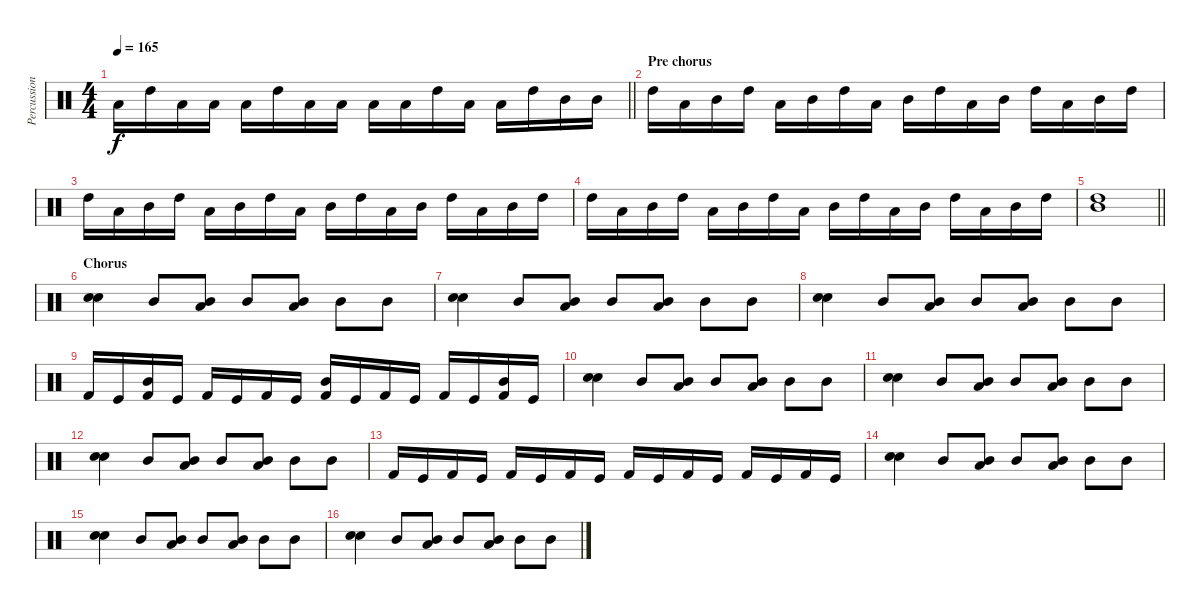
\track ("Percussion" "Percussion") {instrument percussion}
\staff {score}
\articulation defaults
\ts (4 4)
\tempo 165
\clef neutral
\barLineRight lightlight
\ks c "Low Tom (hit)".16{dy f} "High Tom (hit)".16 "Low Tom (hit)".16 "Low Tom (hit)".16 "Low Tom (hit)".16 "High Tom (hit)".16 "Low Tom (hit)".16 "Low Tom (hit)".16 "Low Tom (hit)".16 "Low Tom (hit)".16 "High Tom (hit)".16 "Low Tom (hit)".16 "Low Tom (hit)".16 "High Tom (hit)".16 "Mid Tom (hit)".16 "Mid Tom (hit)".16
|
\section ("" "Pre chorus")
"High Tom (hit)".16 "Low Tom (hit)".16 "Mid Tom (hit)".16 "High Tom (hit)".16 "Low Tom (hit)".16 "Mid Tom (hit)".16 "High Tom (hit)".16 "Low Tom (hit)".16 "Mid Tom (hit)".16 "High Tom (hit)".16 "Low Tom (hit)".16 "Mid Tom (hit)".16 "High Tom (hit)".16 "Low Tom (hit)".16 "Mid Tom (hit)".16 "High Tom (hit)".16 |
"High Tom (hit)".16 "Low Tom (hit)".16 "Mid Tom (hit)".16 "High Tom (hit)".16 "Low Tom (hit)".16 "Mid Tom (hit)".16 "High Tom (hit)".16 "Low Tom (hit)".16 "Mid Tom (hit)".16 "High Tom (hit)".16 "Low Tom (hit)".16 "Mid Tom (hit)".16 "High Tom (hit)".16 "Low Tom (hit)".16 "Mid Tom (hit)".16 "High Tom (hit)".16 |
"High Tom (hit)".16 "Low Tom (hit)".16 "Mid Tom (hit)".16 "High Tom (hit)".16 "Low Tom (hit)".16 "Mid Tom (hit)".16 "High Tom (hit)".16 "Low Tom (hit)".16 "Mid Tom (hit)".16 "High Tom (hit)".16 "Low Tom (hit)".16 "Mid Tom (hit)".16 "High Tom (hit)".16 "Low Tom (hit)".16 "Mid Tom (hit)".16 "High Tom (hit)".16 |
\barLineRight lightlight
("Mid Tom (hit)" "High Tom (hit)").1 |
\section ("" "Chorus")
("Electric Snare (hit)" "Snare (hit) 2").4 "Mid Tom (hit)".8 ("Low Tom (hit)" "Mid Tom (hit)").8 "Mid Tom (hit)".8 ("Low Tom (hit)" "Mid Tom (hit)").8 "Mid Tom (hit)".8 "Mid Tom (hit)".8 |
("Electric Snare (hit)" "Snare (hit) 2").4 "Mid Tom (hit)".8 ("Low Tom (hit)" "Mid Tom (hit)").8 "Mid Tom (hit)".8 ("Low Tom (hit)" "Mid Tom (hit)").8 "Mid Tom (hit)".8 "Mid Tom (hit)".8 |
("Electric Snare (hit)" "Snare (hit) 2").4 "Mid Tom (hit)".8 ("Low Tom (hit)" "Mid Tom (hit)").8 "Mid Tom (hit)".8 ("Low Tom (hit)" "Mid Tom (hit)").8 "Mid Tom (hit)".8 "Mid Tom (hit)".8 |
"Kick (hit) 2".16 "Kick (hit)".16 ("Kick (hit) 2" "Mid Tom (hit)").16 "Kick (hit)".16 "Kick (hit) 2".16 "Kick (hit)".16 "Kick (hit) 2".16 "Kick (hit)".16 ("Kick (hit) 2" "Mid Tom (hit)").16 "Kick (hit)".16 "Kick (hit) 2".16 "Kick (hit)".16 "Kick (hit) 2".16 "Kick (hit)".16 ("Kick (hit) 2" "Mid Tom (hit)").16 "Kick (hit)".16 |
("Electric Snare (hit)" "Snare (hit) 2").4 "Mid Tom (hit)".8 ("Low Tom (hit)" "Mid Tom (hit)").8 "Mid Tom (hit)".8 ("Low Tom (hit)" "Mid Tom (hit)").8 "Mid Tom (hit)".8 "Mid Tom (hit)".8 |
("Electric Snare (hit)" "Snare (hit) 2").4 "Mid Tom (hit)".8 ("Low Tom (hit)" "Mid Tom (hit)").8 "Mid Tom (hit)".8 ("Low Tom (hit)" "Mid Tom (hit)").8 "Mid Tom (hit)".8 "Mid Tom (hit)".8 |
("Electric Snare (hit)" "Snare (hit) 2").4 "Mid Tom (hit)".8 ("Low Tom (hit)" "Mid Tom (hit)").8 "Mid Tom (hit)".8 ("Low Tom (hit)" "Mid Tom (hit)").8 "Mid Tom (hit)".8 "Mid Tom (hit)".8 |
"Kick (hit) 2".16 "Kick (hit)".16 "Kick (hit) 2".16 "Kick (hit)".16 "Kick (hit) 2".16 "Kick (hit)".16 "Kick (hit) 2".16 "Kick (hit)".16 "Kick (hit) 2".16 "Kick (hit)".16 "Kick (hit) 2".16 "Kick (hit)".16 "Kick (hit) 2".16 "Kick (hit)".16 "Kick (hit) 2".16 "Kick (hit)".16 |
("Electric Snare (hit)" "Snare (hit) 2").4 "Mid Tom (hit)".8 ("Low Tom (hit)" "Mid Tom (hit)").8 "Mid Tom (hit)".8 ("Low Tom (hit)" "Mid Tom (hit)").8 "Mid Tom (hit)".8 "Mid Tom (hit)".8 |
("Electric Snare (hit)" "Snare (hit) 2").4 "Mid Tom (hit)".8 ("Low Tom (hit)" "Mid Tom (hit)").8 "Mid Tom (hit)".8 ("Low Tom (hit)" "Mid Tom (hit)").8 "Mid Tom (hit)".8 "Mid Tom (hit)".8 |
("Electric Snare (hit)" "Snare (hit) 2").4 "Mid Tom (hit)".8 ("Low Tom (hit)" "Mid Tom (hit)").8 "Mid Tom (hit)".8 ("Low Tom (hit)" "Mid Tom (hit)").8 "Mid Tom (hit)".8 "Mid Tom (hit)".8
